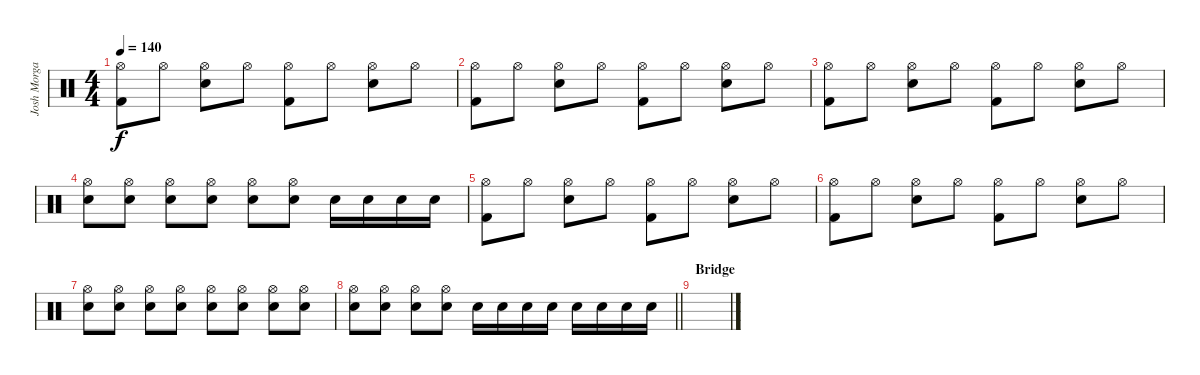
\track ("Josh Morgan" "Josh Morga") {instrument percussion}
\staff {score}
\articulation defaults
\ts (4 4)
\tempo 140
\clef neutral
\ks c
("Hi-Hat (open)" "Kick (hit) 2").8{dy f} "Hi-Hat (open)".8 ("Hi-Hat (open)" "Electric Snare (hit)").8 "Hi-Hat (open)".8 ("Hi-Hat (open)" "Kick (hit) 2").8 "Hi-Hat (open)".8 ("Hi-Hat (open)" "Electric Snare (hit)").8 "Hi-Hat (open)".8 |
("Hi-Hat (open)" "Kick (hit) 2").8 "Hi-Hat (open)".8 ("Hi-Hat (open)" "Electric Snare (hit)").8 "Hi-Hat (open)".8 ("Hi-Hat (open)" "Kick (hit) 2").8 "Hi-Hat (open)".8 ("Hi-Hat (open)" "Electric Snare (hit)").8 "Hi-Hat (open)".8 |
("Hi-Hat (open)" "Kick (hit) 2").8 "Hi-Hat (open)".8 ("Hi-Hat (open)" "Electric Snare (hit)").8 "Hi-Hat (open)".8 ("Hi-Hat (open)" "Kick (hit) 2").8 "Hi-Hat (open)".8 ("Hi-Hat (open)" "Electric Snare (hit)").8 "Hi-Hat (open)".8 |
("Hi-Hat (open)" "Electric Snare (hit)").8 ("Hi-Hat (open)" "Electric Snare (hit)").8 ("Hi-Hat (open)" "Electric Snare (hit)").8 ("Hi-Hat (open)" "Electric Snare (hit)").8 ("Hi-Hat (open)" "Electric Snare (hit)").8 ("Hi-Hat (open)" "Electric Snare (hit)").8 "Electric Snare (hit)".16 "Electric Snare (hit)".16 "Electric Snare (hit)".16 "Electric Snare (hit)".16 |
("Hi-Hat (open)" "Kick (hit) 2").8 "Hi-Hat (open)".8 ("Hi-Hat (open)" "Electric Snare (hit)").8 "Hi-Hat (open)".8 ("Hi-Hat (open)" "Kick (hit) 2").8 "Hi-Hat (open)".8 ("Hi-Hat (open)" "Electric Snare (hit)").8 "Hi-Hat (open)".8 |
("Hi-Hat (open)" "Kick (hit) 2").8 "Hi-Hat (open)".8 ("Hi-Hat (open)" "Electric Snare (hit)").8 "Hi-Hat (open)".8 ("Hi-Hat (open)" "Kick (hit) 2").8 "Hi-Hat (open)".8 ("Hi-Hat (open)" "Electric Snare (hit)").8 "Hi-Hat (open)".8 |
("Hi-Hat (open)" "Electric Snare (hit)").8 ("Hi-Hat (open)" "Electric Snare (hit)").8 ("Hi-Hat (open)" "Electric Snare (hit)").8 ("Hi-Hat (open)" "Electric Snare (hit)").8 ("Hi-Hat (open)" "Electric Snare (hit)").8 ("Hi-Hat (open)" "Electric Snare (hit)").8 ("Hi-Hat (open)" "Electric Snare (hit)").8 ("Hi-Hat (open)" "Electric Snare (hit)").8 |
\barLineRight lightlight
("Hi-Hat (open)" "Electric Snare (hit)").8 ("Hi-Hat (open)" "Electric Snare (hit)").8 ("Hi-Hat (open)" "Electric Snare (hit)").8 ("Hi-Hat (open)" "Electric Snare (hit)").8 "Electric Snare (hit)".16 "Electric Snare (hit)".16 "Electric Snare (hit)".16 "Electric Snare (hit)".16 "Electric Snare (hit)".16 "Electric Snare (hit)".16 "Electric Snare (hit)".16 "Electric Snare (hit)".16 |
\section ("" "Bridge")
